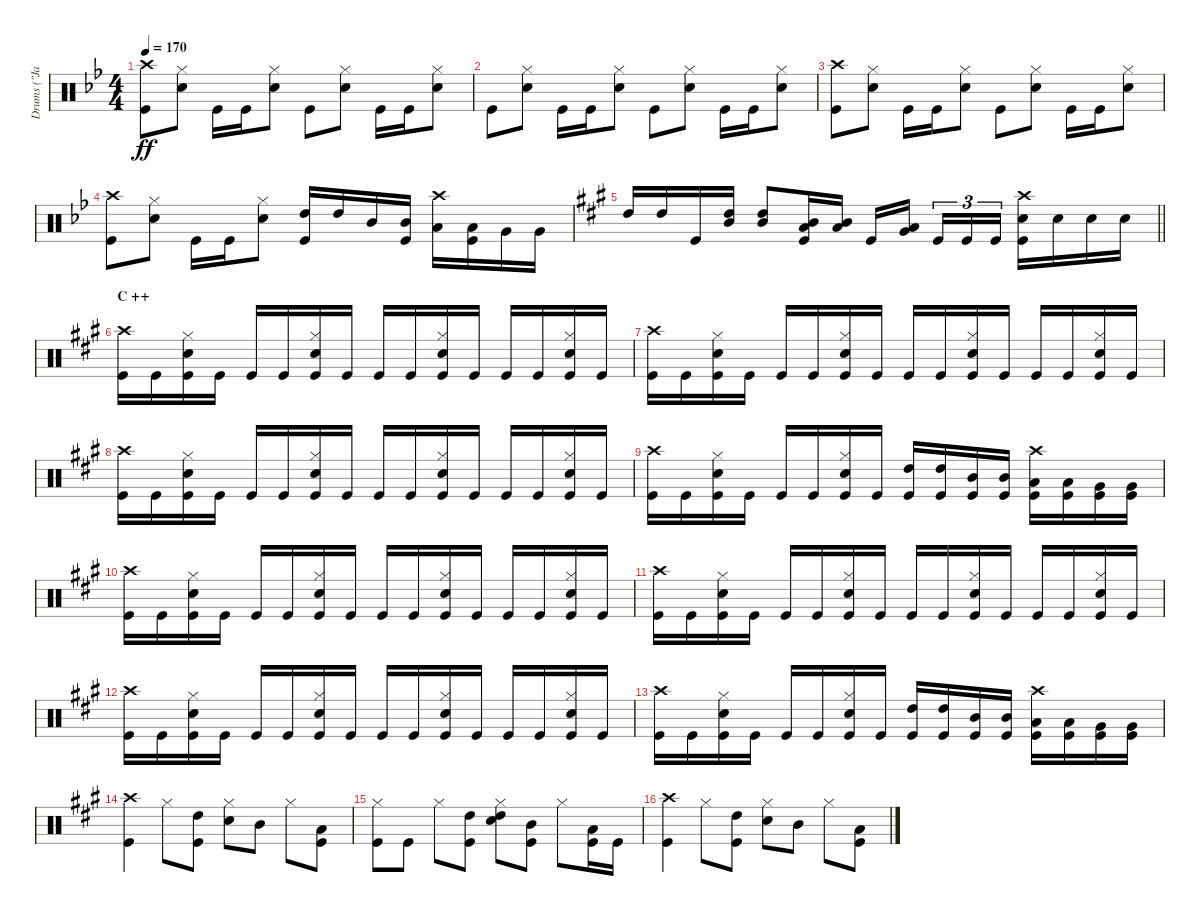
\track ("Drums (\"Jane\")" "Drums (\"Ja") {instrument percussion}
\staff {score}
\articulation defaults
\ts (4 4)
\tempo 170
\clef neutral
\ks bb
("Crash high (hit)" "Kick (hit)").8{dy ff} ("Hi-Hat (closed)" "Snare (hit) 2").8 "Kick (hit)".16 "Kick (hit)".16 ("Hi-Hat (closed)" "Snare (hit) 2").8 "Kick (hit)".8 ("Hi-Hat (closed)" "Snare (hit) 2").8 "Kick (hit)".16 "Kick (hit)".16 ("Hi-Hat (closed)" "Snare (hit) 2").8 |
"Kick (hit)".8 ("Hi-Hat (closed)" "Snare (hit) 2").8 "Kick (hit)".16 "Kick (hit)".16 ("Hi-Hat (closed)" "Snare (hit) 2").8 "Kick (hit)".8 ("Hi-Hat (closed)" "Snare (hit) 2").8 "Kick (hit)".16 "Kick (hit)".16 ("Hi-Hat (closed)" "Snare (hit) 2").8 |
("Crash high (hit)" "Kick (hit)").8 ("Hi-Hat (closed)" "Snare (hit) 2").8 "Kick (hit)".16 "Kick (hit)".16 ("Hi-Hat (closed)" "Snare (hit) 2").8 "Kick (hit)".8 ("Hi-Hat (closed)" "Snare (hit) 2").8 "Kick (hit)".16 "Kick (hit)".16 ("Hi-Hat (closed)" "Snare (hit) 2").8 |
("Crash high (hit)" "Kick (hit)").8 ("Hi-Hat (closed)" "Snare (hit) 2").8 "Kick (hit)".16 "Kick (hit)".16 ("Hi-Hat (closed)" "Snare (hit) 2").8 ("High Tom (hit)" "Kick (hit)").16 "High Tom (hit)".16 "Mid Tom (hit)".16 ("Mid Tom (hit)" "Kick (hit)").16 ("Crash high (hit)" "Low Tom (hit)").16 ("Low Tom (hit)" "Kick (hit)").16 "Very Low Tom (hit)".16 "Very Low Tom (hit)".16 |
\barLineRight lightlight
\ks a "High Tom (hit)".16 "High Tom (hit)".16 "Kick (hit)".16
("High Tom (hit)" "Mid Tom (hit)").16 ("High Tom (hit)" "Mid Tom (hit)").8 ("Low Tom (hit)" "Mid Tom (hit)" "Kick (hit)").16 ("Low Tom (hit)" "Mid Tom (hit)").16 "Kick (hit)".16 ("Low Tom (hit)" "Very Low Tom (hit)").16{beam splitsecondary} "Kick (hit)".16{tu (3 2)} "Kick (hit)".16{tu (3 2)} "Kick (hit)".16{tu (3 2)} ("Crash high (hit)" "Snare (hit) 2" "Kick (hit)").16 "Snare (hit) 2".16 "Snare (hit) 2".16 "Snare (hit) 2".16 |
\section ("" "C ++")
("Crash high (hit)" "Kick (hit)").16 "Kick (hit)".16 ("Hi-Hat (closed)" "Snare (hit) 2" "Kick (hit)").16 "Kick (hit)".16 "Kick (hit)".16 "Kick (hit)".16 ("Hi-Hat (closed)" "Snare (hit) 2" "Kick (hit)").16 "Kick (hit)".16 "Kick (hit)".16 "Kick (hit)".16 ("Hi-Hat (closed)" "Snare (hit) 2" "Kick (hit)").16 "Kick (hit)".16 "Kick (hit)".16 "Kick (hit)".16 ("Hi-Hat (closed)" "Snare (hit) 2" "Kick (hit)").16 "Kick (hit)".16 |
("Crash high (hit)" "Kick (hit)").16 "Kick (hit)".16 ("Hi-Hat (closed)" "Snare (hit) 2" "Kick (hit)").16 "Kick (hit)".16 "Kick (hit)".16 "Kick (hit)".16 ("Hi-Hat (closed)" "Snare (hit) 2" "Kick (hit)").16 "Kick (hit)".16 "Kick (hit)".16 "Kick (hit)".16 ("Hi-Hat (closed)" "Snare (hit) 2" "Kick (hit)").16 "Kick (hit)".16 "Kick (hit)".16 "Kick (hit)".16 ("Hi-Hat (closed)" "Snare (hit) 2" "Kick (hit)").16 "Kick (hit)".16 |
("Crash high (hit)" "Kick (hit)").16 "Kick (hit)".16 ("Hi-Hat (closed)" "Snare (hit) 2" "Kick (hit)").16 "Kick (hit)".16 "Kick (hit)".16 "Kick (hit)".16 ("Hi-Hat (closed)" "Snare (hit) 2" "Kick (hit)").16 "Kick (hit)".16 "Kick (hit)".16 "Kick (hit)".16 ("Hi-Hat (closed)" "Snare (hit) 2" "Kick (hit)").16 "Kick (hit)".16 "Kick (hit)".16 "Kick (hit)".16 ("Hi-Hat (closed)" "Snare (hit) 2" "Kick (hit)").16 "Kick (hit)".16 |
("Crash high (hit)" "Kick (hit)").16 "Kick (hit)".16 ("Hi-Hat (closed)" "Snare (hit) 2" "Kick (hit)").16 "Kick (hit)".16 "Kick (hit)".16 "Kick (hit)".16 ("Hi-Hat (closed)" "Snare (hit) 2" "Kick (hit)").16 "Kick (hit)".16 ("High Tom (hit)" "Kick (hit)").16 ("High Tom (hit)" "Kick (hit)").16 ("Mid Tom (hit)" "Kick (hit)").16 ("Mid Tom (hit)" "Kick (hit)").16 ("Crash high (hit)" "Low Tom (hit)" "Kick (hit)").16 ("Low Tom (hit)" "Kick (hit)").16 ("Very Low Tom (hit)" "Kick (hit)").16 ("Very Low Tom (hit)" "Kick (hit)").16 |
("Crash high (hit)" "Kick (hit)").16 "Kick (hit)".16 ("Hi-Hat (closed)" "Snare (hit) 2" "Kick (hit)").16 "Kick (hit)".16 "Kick (hit)".16 "Kick (hit)".16 ("Hi-Hat (closed)" "Snare (hit) 2" "Kick (hit)").16 "Kick (hit)".16 "Kick (hit)".16 "Kick (hit)".16 ("Hi-Hat (closed)" "Snare (hit) 2" "Kick (hit)").16 "Kick (hit)".16 "Kick (hit)".16 "Kick (hit)".16 ("Hi-Hat (closed)" "Snare (hit) 2" "Kick (hit)").16 "Kick (hit)".16 |
("Crash high (hit)" "Kick (hit)").16 "Kick (hit)".16 ("Hi-Hat (closed)" "Snare (hit) 2" "Kick (hit)").16 "Kick (hit)".16 "Kick (hit)".16 "Kick (hit)".16 ("Hi-Hat (closed)" "Snare (hit) 2" "Kick (hit)").16 "Kick (hit)".16 "Kick (hit)".16 "Kick (hit)".16 ("Hi-Hat (closed)" "Snare (hit) 2" "Kick (hit)").16 "Kick (hit)".16 "Kick (hit)".16 "Kick (hit)".16 ("Hi-Hat (closed)" "Snare (hit) 2" "Kick (hit)").16 "Kick (hit)".16 |
("Crash high (hit)" "Kick (hit)").16 "Kick (hit)".16 ("Hi-Hat (closed)" "Snare (hit) 2" "Kick (hit)").16 "Kick (hit)".16 "Kick (hit)".16 "Kick (hit)".16 ("Hi-Hat (closed)" "Snare (hit) 2" "Kick (hit)").16 "Kick (hit)".16 "Kick (hit)".16 "Kick (hit)".16 ("Hi-Hat (closed)" "Snare (hit) 2" "Kick (hit)").16 "Kick (hit)".16 "Kick (hit)".16 "Kick (hit)".16 ("Hi-Hat (closed)" "Snare (hit) 2" "Kick (hit)").16 "Kick (hit)".16 |
("Crash high (hit)" "Kick (hit)").16 "Kick (hit)".16 ("Hi-Hat (closed)" "Snare (hit) 2" "Kick (hit)").16 "Kick (hit)".16 "Kick (hit)".16 "Kick (hit)".16 ("Hi-Hat (closed)" "Snare (hit) 2" "Kick (hit)").16 "Kick (hit)".16 ("High Tom (hit)" "Kick (hit)").16 ("High Tom (hit)" "Kick (hit)").16 ("Mid Tom (hit)" "Kick (hit)").16 ("Mid Tom (hit)" "Kick (hit)").16 ("Crash high (hit)" "Low Tom (hit)" "Kick (hit)").16 ("Low Tom (hit)" "Kick (hit)").16 ("Very Low Tom (hit)" "Kick (hit)").16 ("Very Low Tom (hit)" "Kick (hit)").16 |
("Crash high (hit)" "Kick (hit)").4 "Hi-Hat (closed)".8 ("High Tom (hit)" "Kick (hit)").8 ("Hi-Hat (closed)" "Snare (hit) 2").8 "Mid Tom (hit)".8 "Hi-Hat (closed)".8 ("Low Tom (hit)" "Kick (hit)").8 |
("Hi-Hat (closed)" "Kick (hit)").8 "Kick (hit)".8 "Hi-Hat (closed)".8 ("High Tom (hit)" "Kick (hit)").8 ("Hi-Hat (closed)" "Snare (hit) 2" "High Tom (hit)").8 ("Mid Tom (hit)" "Kick (hit)").8 "Hi-Hat (closed)".8 ("Low Tom (hit)" "Kick (hit)").16 "Kick (hit)".16 |
("Crash high (hit)" "Kick (hit)").4 "Hi-Hat (closed)".8 ("High Tom (hit)" "Kick (hit)").8 ("Hi-Hat (closed)" "Snare (hit) 2").8 "Mid Tom (hit)".8 "Hi-Hat (closed)".8 ("Low Tom (hit)" "Kick (hit)").8
